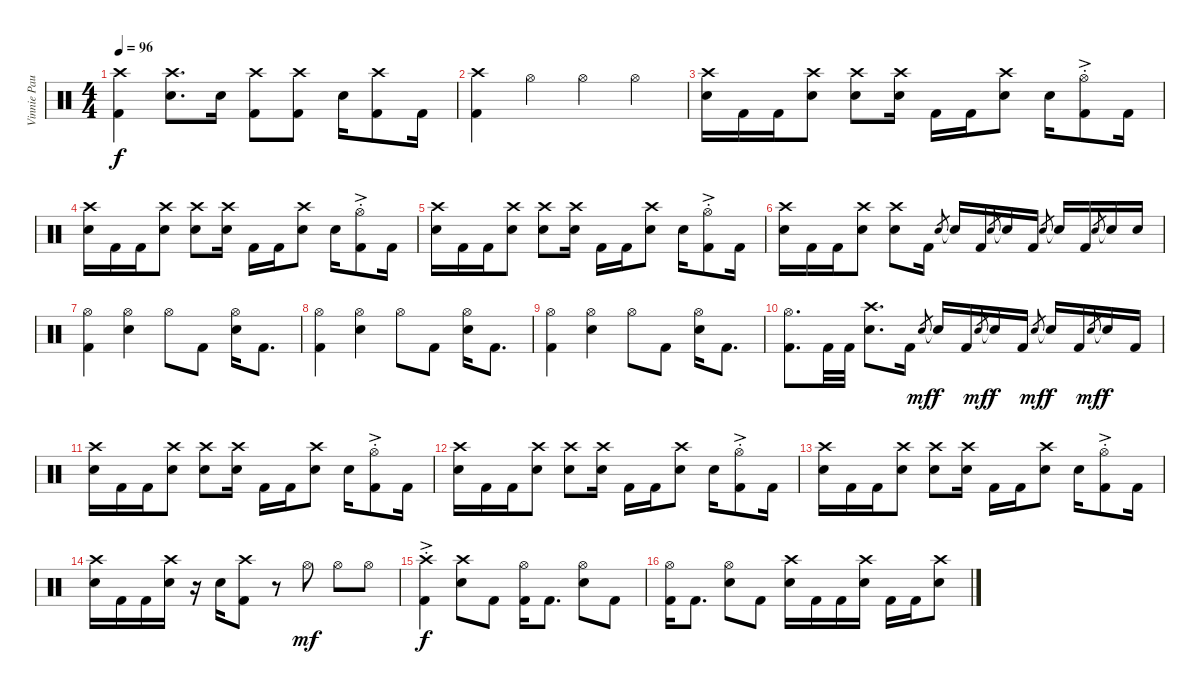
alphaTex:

\track ("Vinnie Paul" "Vinnie Pau") {instrument percussion}
\staff {score}
\articulation defaults
\ts (4 4)
\tempo 96
\clef neutral
\ks c
("Crash high (hit)" "Kick (hit) 2").4{dy f} ("Crash high (hit)" "Snare (hit) 2").8{d} "Snare (hit) 2".16 ("Crash high (hit)" "Kick (hit) 2").8 ("Crash high (hit)" "Kick (hit) 2").8 "Snare (hit) 2".16 ("Crash high (hit)" "Kick (hit) 2").8 "Kick (hit) 2".16 |
("Crash high (hit)" "Kick (hit) 2").4 "Hi-Hat (open)".4 "Hi-Hat (open)".4 "Hi-Hat (open)".4 |
("Crash high (hit)" "Snare (hit) 2").16 "Kick (hit) 2".16 "Kick (hit) 2".16 ("Crash high (hit)" "Snare (hit) 2").8 ("Snare (hit) 2" "Crash high (hit)").8 ("Crash high (hit)" "Snare (hit) 2").16 "Kick (hit) 2".16 "Kick (hit) 2".16 ("Crash high (hit)" "Snare (hit) 2").8 "Snare (hit) 2".16 ("Hi-Hat (open)"{ac st} "Kick (hit) 2").8 "Kick (hit) 2".16 |
("Crash high (hit)" "Snare (hit) 2").16 "Kick (hit) 2".16 "Kick (hit) 2".16 ("Crash high (hit)" "Snare (hit) 2").8 ("Snare (hit) 2" "Crash high (hit)").8 ("Crash high (hit)" "Snare (hit) 2").16 "Kick (hit) 2".16 "Kick (hit) 2".16 ("Crash high (hit)" "Snare (hit) 2").8 "Snare (hit) 2".16 ("Hi-Hat (open)"{ac st} "Kick (hit) 2").8 "Kick (hit) 2".16 |
("Crash high (hit)" "Snare (hit) 2").16 "Kick (hit) 2".16 "Kick (hit) 2".16 ("Crash high (hit)" "Snare (hit) 2").8 ("Snare (hit) 2" "Crash high (hit)").8 ("Crash high (hit)" "Snare (hit) 2").16 "Kick (hit) 2".16 "Kick (hit) 2".16 ("Crash high (hit)" "Snare (hit) 2").8 "Snare (hit) 2".16 ("Hi-Hat (open)"{ac st} "Kick (hit) 2").8 "Kick (hit) 2".16 |
("Crash high (hit)" "Snare (hit) 2").16 "Kick (hit) 2".16 "Kick (hit) 2".16 ("Crash high (hit)" "Snare (hit) 2").8 ("Snare (hit) 2" "Crash high (hit)").8 "Kick (hit) 2".16 "Snare (hit)".8{gr} "Snare (hit) 2"{t}.16 "Kick (hit) 2".16 "Snare (hit)".8{gr} "Snare (hit) 2"{t}.16 "Kick (hit) 2".16 "Snare (hit)".8{gr} "Snare (hit) 2"{t}.16 "Kick (hit) 2".16 "Snare (hit)".8{gr} "Snare (hit) 2"{t}.16 "Snare (hit) 2".16 |
("Kick (hit) 2" "Hi-Hat (open)").4 ("Snare (hit) 2" "Hi-Hat (open)").4 "Hi-Hat (open)".8 "Kick (hit) 2".8 ("Snare (hit) 2" "Hi-Hat (open)").16 "Kick (hit) 2".8{d} |
("Kick (hit) 2" "Hi-Hat (open)").4 ("Snare (hit) 2" "Hi-Hat (open)").4 "Hi-Hat (open)".8 "Kick (hit) 2".8 ("Snare (hit) 2" "Hi-Hat (open)").16 "Kick (hit) 2".8{d} |
("Kick (hit) 2" "Hi-Hat (open)").4 ("Snare (hit) 2" "Hi-Hat (open)").4 "Hi-Hat (open)".8 "Kick (hit) 2".8 ("Snare (hit) 2" "Hi-Hat (open)").16 "Kick (hit) 2".8{d} |
("Kick (hit) 2" "Hi-Hat (open)").8{d} "Kick (hit) 2".32 "Kick (hit) 2".32 ("Crash high (hit)" "Snare (hit) 2").8{d} "Kick (hit) 2".16 "Snare (hit)".8{gr dy mf} "Snare (hit) 2"{t}.16{dy f} "Kick (hit) 2".16 "Snare (hit)".8{gr dy mf} "Snare (hit) 2"{t}.16{dy f} "Kick (hit) 2".16 "Snare (hit)".8{gr dy mf} "Snare (hit) 2"{t}.16{dy f} "Kick (hit) 2".16 "Snare (hit)".8{gr dy mf} "Snare (hit) 2"{t}.16{dy f} "Kick (hit) 2".16 |
("Crash high (hit)" "Snare (hit) 2").16 "Kick (hit) 2".16 "Kick (hit) 2".16 ("Crash high (hit)" "Snare (hit) 2").8 ("Snare (hit) 2" "Crash high (hit)").8 ("Crash high (hit)" "Snare (hit) 2").16 "Kick (hit) 2".16 "Kick (hit) 2".16 ("Crash high (hit)" "Snare (hit) 2").8 "Snare (hit) 2".16 ("Hi-Hat (open)"{ac st} "Kick (hit) 2").8 "Kick (hit) 2".16 |
("Crash high (hit)" "Snare (hit) 2").16 "Kick (hit) 2".16 "Kick (hit) 2".16 ("Crash high (hit)" "Snare (hit) 2").8 ("Snare (hit) 2" "Crash high (hit)").8 ("Crash high (hit)" "Snare (hit) 2").16 "Kick (hit) 2".16 "Kick (hit) 2".16 ("Crash high (hit)" "Snare (hit) 2").8 "Snare (hit) 2".16 ("Hi-Hat (open)"{ac st} "Kick (hit) 2").8 "Kick (hit) 2".16 |
("Crash high (hit)" "Snare (hit) 2").16 "Kick (hit) 2".16 "Kick (hit) 2".16 ("Crash high (hit)" "Snare (hit) 2").8 ("Snare (hit) 2" "Crash high (hit)").8 ("Crash high (hit)" "Snare (hit) 2").16 "Kick (hit) 2".16 "Kick (hit) 2".16 ("Crash high (hit)" "Snare (hit) 2").8 "Snare (hit) 2".16 ("Hi-Hat (open)"{ac st} "Kick (hit) 2").8 "Kick (hit) 2".16 |
("Crash high (hit)" "Snare (hit) 2").16 "Kick (hit) 2".16 "Kick (hit) 2".16 ("Crash high (hit)" "Snare (hit) 2").16 r.16 "Snare (hit) 2".16 ("Crash high (hit)" "Kick (hit) 2").8 r.8 "Hi-Hat (open)".8{dy mf} "Hi-Hat (open)".8 "Hi-Hat (open)".8 |
("Crash high (hit)"{ac st} "Kick (hit) 2"{ac st}).4{dy f} ("Snare (hit) 2" "Crash high (hit)").8 "Kick (hit) 2".8 ("Kick (hit) 2" "Hi-Hat (open)").16 "Kick (hit) 2".8{d} ("Snare (hit) 2" "Hi-Hat (open)").8 "Kick (hit) 2".8 |
("Kick (hit) 2" "Hi-Hat (open)").16 "Kick (hit) 2".8{d} ("Snare (hit) 2" "Hi-Hat (open)").8 "Kick (hit) 2".8 ("Crash high (hit)" "Snare (hit) 2").16 "Kick (hit) 2".16 "Kick (hit) 2".16 ("Crash high (hit)" "Snare (hit) 2").16 "Kick (hit) 2".16 "Kick (hit) 2".16 ("Crash high (hit)" "Snare (hit) 2").8
